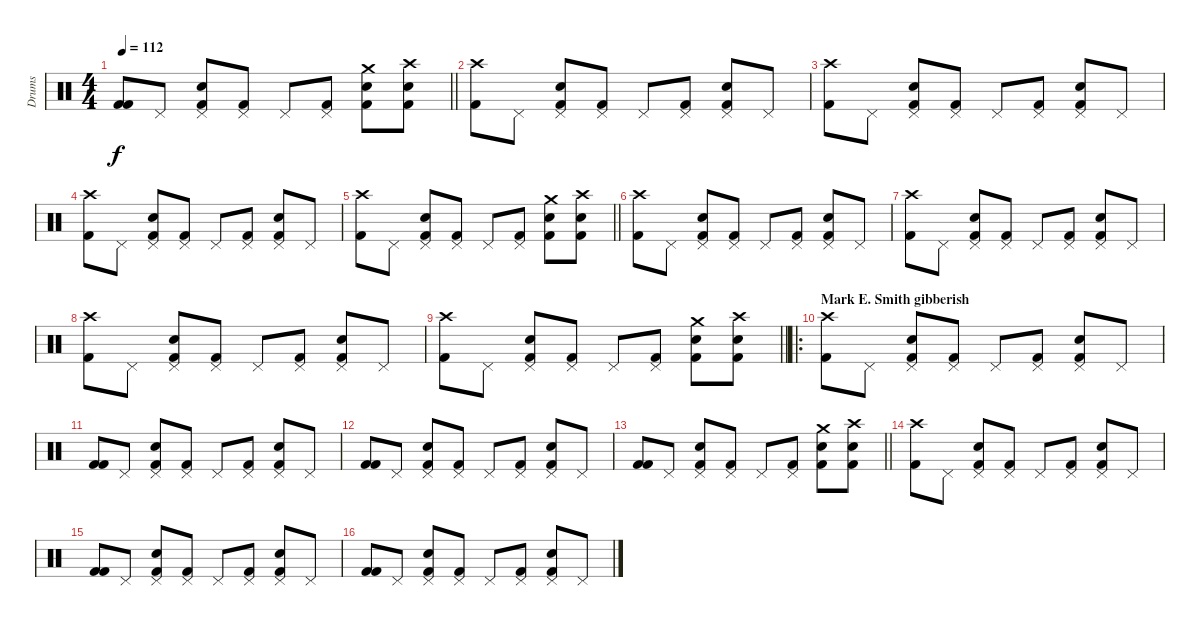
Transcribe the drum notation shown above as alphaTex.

\track ("Drums" "Drums") {instrument percussion}
\staff {score}
\articulation defaults
\ts (4 4)
\tempo 112
\clef neutral
\barLineRight lightlight
\ks c
("Kick (hit) 2" "Kick (hit) 2").8{dy f} "Pedal Hi-Hat (hit)".8 ("Pedal Hi-Hat (hit)" "Snare (hit) 2" "Kick (hit) 2").8 ("Pedal Hi-Hat (hit)" "Kick (hit) 2").8 "Pedal Hi-Hat (hit)".8 ("Pedal Hi-Hat (hit)" "Kick (hit) 2").8 ("Kick (hit) 2" "Snare (hit) 2" "Crash medium (hit)").8 ("Kick (hit) 2" "Snare (hit) 2" "Crash high (hit)").8 |
("Kick (hit) 2" "Crash high (hit)").8 "Pedal Hi-Hat (hit)".8 ("Pedal Hi-Hat (hit)" "Snare (hit) 2" "Kick (hit) 2").8 ("Pedal Hi-Hat (hit)" "Kick (hit) 2").8 "Pedal Hi-Hat (hit)".8 ("Pedal Hi-Hat (hit)" "Kick (hit) 2").8 ("Pedal Hi-Hat (hit)" "Snare (hit) 2" "Kick (hit) 2").8 "Pedal Hi-Hat (hit)".8 |
("Kick (hit) 2" "Crash high (hit)").8 "Pedal Hi-Hat (hit)".8 ("Pedal Hi-Hat (hit)" "Snare (hit) 2" "Kick (hit) 2").8 ("Pedal Hi-Hat (hit)" "Kick (hit) 2").8 "Pedal Hi-Hat (hit)".8 ("Pedal Hi-Hat (hit)" "Kick (hit) 2").8 ("Pedal Hi-Hat (hit)" "Snare (hit) 2" "Kick (hit) 2").8 "Pedal Hi-Hat (hit)".8 |
("Kick (hit) 2" "Crash high (hit)").8 "Pedal Hi-Hat (hit)".8 ("Pedal Hi-Hat (hit)" "Snare (hit) 2" "Kick (hit) 2").8 ("Pedal Hi-Hat (hit)" "Kick (hit) 2").8 "Pedal Hi-Hat (hit)".8 ("Pedal Hi-Hat (hit)" "Kick (hit) 2").8 ("Pedal Hi-Hat (hit)" "Snare (hit) 2" "Kick (hit) 2").8 "Pedal Hi-Hat (hit)".8 |
\barLineRight lightlight
("Kick (hit) 2" "Crash high (hit)").8 "Pedal Hi-Hat (hit)".8 ("Pedal Hi-Hat (hit)" "Snare (hit) 2" "Kick (hit) 2").8 ("Pedal Hi-Hat (hit)" "Kick (hit) 2").8 "Pedal Hi-Hat (hit)".8 ("Pedal Hi-Hat (hit)" "Kick (hit) 2").8 ("Kick (hit) 2" "Snare (hit) 2" "Crash medium (hit)").8 ("Kick (hit) 2" "Snare (hit) 2" "Crash high (hit)").8 |
("Kick (hit) 2" "Crash high (hit)").8 "Pedal Hi-Hat (hit)".8 ("Pedal Hi-Hat (hit)" "Snare (hit) 2" "Kick (hit) 2").8 ("Pedal Hi-Hat (hit)" "Kick (hit) 2").8 "Pedal Hi-Hat (hit)".8 ("Pedal Hi-Hat (hit)" "Kick (hit) 2").8 ("Pedal Hi-Hat (hit)" "Snare (hit) 2" "Kick (hit) 2").8 "Pedal Hi-Hat (hit)".8 |
("Kick (hit) 2" "Crash high (hit)").8 "Pedal Hi-Hat (hit)".8 ("Pedal Hi-Hat (hit)" "Snare (hit) 2" "Kick (hit) 2").8 ("Pedal Hi-Hat (hit)" "Kick (hit) 2").8 "Pedal Hi-Hat (hit)".8 ("Pedal Hi-Hat (hit)" "Kick (hit) 2").8 ("Pedal Hi-Hat (hit)" "Snare (hit) 2" "Kick (hit) 2").8 "Pedal Hi-Hat (hit)".8 |
("Kick (hit) 2" "Crash high (hit)").8 "Pedal Hi-Hat (hit)".8 ("Pedal Hi-Hat (hit)" "Snare (hit) 2" "Kick (hit) 2").8 ("Pedal Hi-Hat (hit)" "Kick (hit) 2").8 "Pedal Hi-Hat (hit)".8 ("Pedal Hi-Hat (hit)" "Kick (hit) 2").8 ("Pedal Hi-Hat (hit)" "Snare (hit) 2" "Kick (hit) 2").8 "Pedal Hi-Hat (hit)".8 |
\barLineRight lightlight
("Kick (hit) 2" "Crash high (hit)").8 "Pedal Hi-Hat (hit)".8 ("Pedal Hi-Hat (hit)" "Snare (hit) 2" "Kick (hit) 2").8 ("Pedal Hi-Hat (hit)" "Kick (hit) 2").8 "Pedal Hi-Hat (hit)".8 ("Pedal Hi-Hat (hit)" "Kick (hit) 2").8 ("Kick (hit) 2" "Snare (hit) 2" "Crash medium (hit)").8 ("Kick (hit) 2" "Snare (hit) 2" "Crash high (hit)").8 |
\ro
\section ("" "Mark E. Smith gibberish")
("Kick (hit) 2" "Crash high (hit)").8 "Pedal Hi-Hat (hit)".8 ("Pedal Hi-Hat (hit)" "Snare (hit) 2" "Kick (hit) 2").8 ("Pedal Hi-Hat (hit)" "Kick (hit) 2").8 "Pedal Hi-Hat (hit)".8 ("Pedal Hi-Hat (hit)" "Kick (hit) 2").8 ("Pedal Hi-Hat (hit)" "Snare (hit) 2" "Kick (hit) 2").8 "Pedal Hi-Hat (hit)".8 |
("Kick (hit) 2" "Kick (hit) 2").8 "Pedal Hi-Hat (hit)".8 ("Pedal Hi-Hat (hit)" "Snare (hit) 2" "Kick (hit) 2").8 ("Pedal Hi-Hat (hit)" "Kick (hit) 2").8 "Pedal Hi-Hat (hit)".8 ("Pedal Hi-Hat (hit)" "Kick (hit) 2").8 ("Pedal Hi-Hat (hit)" "Snare (hit) 2" "Kick (hit) 2").8 "Pedal Hi-Hat (hit)".8 |
("Kick (hit) 2" "Kick (hit) 2").8 "Pedal Hi-Hat (hit)".8 ("Pedal Hi-Hat (hit)" "Snare (hit) 2" "Kick (hit) 2").8 ("Pedal Hi-Hat (hit)" "Kick (hit) 2").8 "Pedal Hi-Hat (hit)".8 ("Pedal Hi-Hat (hit)" "Kick (hit) 2").8 ("Pedal Hi-Hat (hit)" "Snare (hit) 2" "Kick (hit) 2").8 "Pedal Hi-Hat (hit)".8 |
\barLineRight lightlight
("Kick (hit) 2" "Kick (hit) 2").8 "Pedal Hi-Hat (hit)".8 ("Pedal Hi-Hat (hit)" "Snare (hit) 2" "Kick (hit) 2").8 ("Pedal Hi-Hat (hit)" "Kick (hit) 2").8 "Pedal Hi-Hat (hit)".8 ("Pedal Hi-Hat (hit)" "Kick (hit) 2").8 ("Kick (hit) 2" "Snare (hit) 2" "Crash medium (hit)").8 ("Kick (hit) 2" "Snare (hit) 2" "Crash high (hit)").8 |
("Kick (hit) 2" "Crash high (hit)").8 "Pedal Hi-Hat (hit)".8 ("Pedal Hi-Hat (hit)" "Snare (hit) 2" "Kick (hit) 2").8 ("Pedal Hi-Hat (hit)" "Kick (hit) 2").8 "Pedal Hi-Hat (hit)".8 ("Pedal Hi-Hat (hit)" "Kick (hit) 2").8 ("Pedal Hi-Hat (hit)" "Snare (hit) 2" "Kick (hit) 2").8 "Pedal Hi-Hat (hit)".8 |
("Kick (hit) 2" "Kick (hit) 2").8 "Pedal Hi-Hat (hit)".8 ("Pedal Hi-Hat (hit)" "Snare (hit) 2" "Kick (hit) 2").8 ("Pedal Hi-Hat (hit)" "Kick (hit) 2").8 "Pedal Hi-Hat (hit)".8 ("Pedal Hi-Hat (hit)" "Kick (hit) 2").8 ("Pedal Hi-Hat (hit)" "Snare (hit) 2" "Kick (hit) 2").8 "Pedal Hi-Hat (hit)".8 |
("Kick (hit) 2" "Kick (hit) 2").8 "Pedal Hi-Hat (hit)".8 ("Pedal Hi-Hat (hit)" "Snare (hit) 2" "Kick (hit) 2").8 ("Pedal Hi-Hat (hit)" "Kick (hit) 2").8 "Pedal Hi-Hat (hit)".8 ("Pedal Hi-Hat (hit)" "Kick (hit) 2").8 ("Pedal Hi-Hat (hit)" "Snare (hit) 2" "Kick (hit) 2").8 "Pedal Hi-Hat (hit)".8
